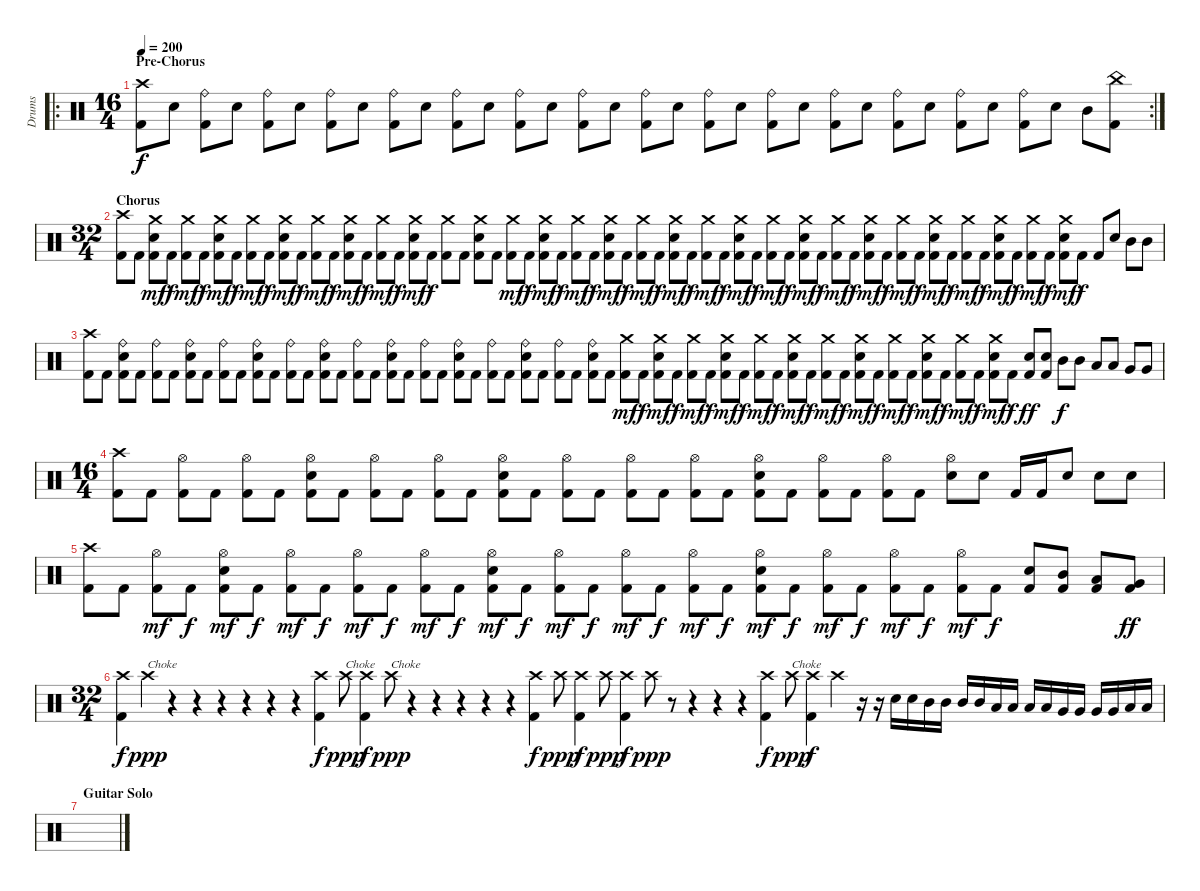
\track ("Drums" "Drums") {instrument percussion}
\staff {score}
\articulation defaults
\ro
\rc 2
\ts (16 4)
\section ("" "Pre-Chorus")
\tempo 200
\clef neutral
\ks c
("Crash high (hit)" "Kick (hit) 2").8{dy f} "Electric Snare (hit)".8 ("Ride (bell)" "Kick (hit) 2").8 "Electric Snare (hit)".8 ("Ride (bell)" "Kick (hit) 2").8 "Electric Snare (hit)".8 ("Ride (bell)" "Kick (hit) 2").8 "Electric Snare (hit)".8 ("Ride (bell)" "Kick (hit) 2").8 "Electric Snare (hit)".8 ("Ride (bell)" "Kick (hit) 2").8 "Electric Snare (hit)".8 ("Ride (bell)" "Kick (hit) 2").8 "Electric Snare (hit)".8 ("Ride (bell)" "Kick (hit) 2").8 "Electric Snare (hit)".8 ("Ride (bell)" "Kick (hit) 2").8 "Electric Snare (hit)".8 ("Ride (bell)" "Kick (hit) 2").8 "Electric Snare (hit)".8 ("Ride (bell)" "Kick (hit) 2").8 "Electric Snare (hit)".8 ("Ride (bell)" "Kick (hit) 2").8 "Electric Snare (hit)".8 ("Ride (bell)" "Kick (hit) 2").8 "Electric Snare (hit)".8 ("Ride (bell)" "Kick (hit) 2").8 "Electric Snare (hit)".8 ("Ride (bell)" "Kick (hit) 2").8 "Electric Snare (hit)".8 "Mid Tom (hit)".8 ("China (hit)" "Kick (hit) 2").8 |
\ts (32 4)
\section ("" "Chorus")
("Crash high (hit)" "Kick (hit) 2").8 "Kick (hit) 2".8 ("Crash medium (hit)" "Electric Snare (hit)" "Kick (hit) 2").8{dy mf} "Kick (hit) 2".8{dy f} ("Crash medium (hit)" "Kick (hit) 2").8{dy mf} "Kick (hit) 2".8{dy f} ("Crash medium (hit)" "Electric Snare (hit)" "Kick (hit) 2").8{dy mf} "Kick (hit) 2".8{dy f} ("Crash medium (hit)" "Kick (hit) 2").8{dy mf} "Kick (hit) 2".8{dy f} ("Crash medium (hit)" "Electric Snare (hit)" "Kick (hit) 2").8{dy mf} "Kick (hit) 2".8{dy f} ("Crash medium (hit)" "Kick (hit) 2").8{dy mf} "Kick (hit) 2".8{dy f} ("Crash medium (hit)" "Electric Snare (hit)" "Kick (hit) 2").8{dy mf} "Kick (hit) 2".8{dy f} ("Crash medium (hit)" "Kick (hit) 2").8{dy mf} "Kick (hit) 2".8{dy f} ("Crash medium (hit)" "Electric Snare (hit)" "Kick (hit) 2").8{dy mf} "Kick (hit) 2".8{dy f} ("Crash medium (hit)" "Kick (hit) 2").8 "Kick (hit) 2".8 ("Crash medium (hit)" "Electric Snare (hit)" "Kick (hit) 2").8 "Kick (hit) 2".8 ("Crash medium (hit)" "Kick (hit) 2").8{dy mf} "Kick (hit) 2".8{dy f} ("Crash medium (hit)" "Electric Snare (hit)" "Kick (hit) 2").8{dy mf} "Kick (hit) 2".8{dy f} ("Crash medium (hit)" "Kick (hit) 2").8{dy mf} "Kick (hit) 2".8{dy f} ("Crash medium (hit)" "Electric Snare (hit)" "Kick (hit) 2").8{dy mf} "Kick (hit) 2".8{dy f} ("Crash medium (hit)" "Kick (hit) 2").8{dy mf} "Kick (hit) 2".8{dy f} ("Crash medium (hit)" "Electric Snare (hit)" "Kick (hit) 2").8{dy mf} "Kick (hit) 2".8{dy f} ("Crash medium (hit)" "Kick (hit) 2").8{dy mf} "Kick (hit) 2".8{dy f} ("Crash medium (hit)" "Electric Snare (hit)" "Kick (hit) 2").8{dy mf} "Kick (hit) 2".8{dy f} ("Crash medium (hit)" "Kick (hit) 2").8{dy mf} "Kick (hit) 2".8{dy f} ("Crash medium (hit)" "Electric Snare (hit)" "Kick (hit) 2").8{dy mf} "Kick (hit) 2".8{dy f} ("Crash medium (hit)" "Kick (hit) 2").8{dy mf} "Kick (hit) 2".8{dy f} ("Crash medium (hit)" "Electric Snare (hit)" "Kick (hit) 2").8{dy mf} "Kick (hit) 2".8{dy f} ("Crash medium (hit)" "Kick (hit) 2").8{dy mf} "Kick (hit) 2".8{dy f} ("Crash medium (hit)" "Electric Snare (hit)" "Kick (hit) 2").8{dy mf} "Kick (hit) 2".8{dy f} ("Crash medium (hit)" "Kick (hit) 2").8{dy mf} "Kick (hit) 2".8{dy f} ("Crash medium (hit)" "Electric Snare (hit)" "Kick (hit) 2").8{dy mf} "Kick (hit) 2".8{dy f} ("Crash medium (hit)" "Kick (hit) 2").8{dy mf} "Kick (hit) 2".8{dy f} ("Crash medium (hit)" "Electric Snare (hit)" "Kick (hit) 2").8{dy mf} "Kick (hit) 2".8{dy f} "Kick (hit) 2".8 "Electric Snare (hit)".8 "Mid Tom (hit)".8 "Mid Tom (hit)".8 |
("Crash high (hit)" "Kick (hit) 2").8 "Kick (hit) 2".8 ("Ride (bell)" "Electric Snare (hit)" "Kick (hit) 2").8 "Kick (hit) 2".8 ("Ride (bell)" "Kick (hit) 2").8 "Kick (hit) 2".8 ("Ride (bell)" "Electric Snare (hit)" "Kick (hit) 2").8 "Kick (hit) 2".8 ("Ride (bell)" "Kick (hit) 2").8 "Kick (hit) 2".8 ("Ride (bell)" "Electric Snare (hit)" "Kick (hit) 2").8 "Kick (hit) 2".8 ("Ride (bell)" "Kick (hit) 2").8 "Kick (hit) 2".8 ("Ride (bell)" "Electric Snare (hit)" "Kick (hit) 2").8 "Kick (hit) 2".8 ("Ride (bell)" "Kick (hit) 2").8 "Kick (hit) 2".8 ("Ride (bell)" "Electric Snare (hit)" "Kick (hit) 2").8 "Kick (hit) 2".8 ("Ride (bell)" "Kick (hit) 2").8 "Kick (hit) 2".8 ("Ride (bell)" "Electric Snare (hit)" "Kick (hit) 2").8 "Kick (hit) 2".8 ("Ride (bell)" "Kick (hit) 2").8 "Kick (hit) 2".8 ("Ride (bell)" "Electric Snare (hit)" "Kick (hit) 2").8 "Kick (hit) 2".8 ("Ride (bell)" "Kick (hit) 2").8 "Kick (hit) 2".8 ("Ride (bell)" "Electric Snare (hit)" "Kick (hit) 2").8 "Kick (hit) 2".8 ("Crash medium (hit)" "Kick (hit) 2").8{dy mf} "Kick (hit) 2".8{dy f} ("Crash medium (hit)" "Electric Snare (hit)" "Kick (hit) 2").8{dy mf} "Kick (hit) 2".8{dy f} ("Crash medium (hit)" "Kick (hit) 2").8{dy mf} "Kick (hit) 2".8{dy f} ("Crash medium (hit)" "Electric Snare (hit)" "Kick (hit) 2").8{dy mf} "Kick (hit) 2".8{dy f} ("Crash medium (hit)" "Kick (hit) 2").8{dy mf} "Kick (hit) 2".8{dy f} ("Crash medium (hit)" "Electric Snare (hit)" "Kick (hit) 2").8{dy mf} "Kick (hit) 2".8{dy f} ("Crash medium (hit)" "Kick (hit) 2").8{dy mf} "Kick (hit) 2".8{dy f} ("Crash medium (hit)" "Electric Snare (hit)" "Kick (hit) 2").8{dy mf} "Kick (hit) 2".8{dy f} ("Crash medium (hit)" "Kick (hit) 2").8{dy mf} "Kick (hit) 2".8{dy f} ("Crash medium (hit)" "Electric Snare (hit)" "Kick (hit) 2").8{dy mf} "Kick (hit) 2".8{dy f} ("Crash medium (hit)" "Kick (hit) 2").8{dy mf} "Kick (hit) 2".8{dy f} ("Crash medium (hit)" "Electric Snare (hit)" "Kick (hit) 2").8{dy mf} "Kick (hit) 2".8{dy f} ("Electric Snare (hit)" "Kick (hit) 2").8{dy ff} ("Electric Snare (hit)" "Kick (hit) 2").8 "Mid Tom (hit)".8{dy f} "Mid Tom (hit)".8 "Low Tom (hit)".8 "Low Tom (hit)".8 "Very Low Tom (hit)".8 "Very Low Tom (hit)".8 |
\ts (16 4)
("Crash high (hit)" "Kick (hit) 2").8 "Kick (hit) 2".8 ("Hi-Hat (open)" "Kick (hit) 2").8 "Kick (hit) 2".8 ("Hi-Hat (open)" "Kick (hit) 2").8 "Kick (hit) 2".8 ("Hi-Hat (open)" "Electric Snare (hit)" "Kick (hit) 2").8 "Kick (hit) 2".8 ("Hi-Hat (open)" "Kick (hit) 2").8 "Kick (hit) 2".8 ("Hi-Hat (open)" "Kick (hit) 2").8 "Kick (hit) 2".8 ("Hi-Hat (open)" "Electric Snare (hit)" "Kick (hit) 2").8 "Kick (hit) 2".8 ("Hi-Hat (open)" "Kick (hit) 2").8 "Kick (hit) 2".8 ("Hi-Hat (open)" "Kick (hit) 2").8 "Kick (hit) 2".8 ("Hi-Hat (open)" "Kick (hit) 2").8 "Kick (hit) 2".8 ("Hi-Hat (open)" "Electric Snare (hit)" "Kick (hit) 2").8 "Kick (hit) 2".8 ("Hi-Hat (open)" "Kick (hit) 2").8 "Kick (hit) 2".8 ("Hi-Hat (open)" "Kick (hit) 2").8 "Kick (hit) 2".8 ("Hi-Hat (open)" "Electric Snare (hit)").8 "Electric Snare (hit)".8 "Kick (hit) 2".16 "Kick (hit) 2".16 "Electric Snare (hit)".8 "Electric Snare (hit)".8 "Electric Snare (hit)".8 |
("Crash high (hit)" "Kick (hit) 2").8 "Kick (hit) 2".8 ("Hi-Hat (open)" "Kick (hit) 2").8{dy mf} "Kick (hit) 2".8{dy f} ("Hi-Hat (open)" "Electric Snare (hit)" "Kick (hit) 2").8{dy mf} "Kick (hit) 2".8{dy f} ("Hi-Hat (open)" "Kick (hit) 2").8{dy mf} "Kick (hit) 2".8{dy f} ("Hi-Hat (open)" "Kick (hit) 2").8{dy mf} "Kick (hit) 2".8{dy f} ("Hi-Hat (open)" "Kick (hit) 2").8{dy mf} "Kick (hit) 2".8{dy f} ("Hi-Hat (open)" "Electric Snare (hit)" "Kick (hit) 2").8{dy mf} "Kick (hit) 2".8{dy f} ("Hi-Hat (open)" "Kick (hit) 2").8{dy mf} "Kick (hit) 2".8{dy f} ("Hi-Hat (open)" "Kick (hit) 2").8{dy mf} "Kick (hit) 2".8{dy f} ("Hi-Hat (open)" "Kick (hit) 2").8{dy mf} "Kick (hit) 2".8{dy f} ("Hi-Hat (open)" "Electric Snare (hit)" "Kick (hit) 2").8{dy mf} "Kick (hit) 2".8{dy f} ("Hi-Hat (open)" "Kick (hit) 2").8{dy mf} "Kick (hit) 2".8{dy f} ("Hi-Hat (open)" "Kick (hit) 2").8{dy mf} "Kick (hit) 2".8{dy f} ("Hi-Hat (open)" "Kick (hit) 2").8{dy mf} "Kick (hit) 2".8{dy f} ("Electric Snare (hit)" "Kick (hit) 2").8 ("Mid Tom (hit)" "Kick (hit) 2").8 ("Low Tom (hit)" "Kick (hit) 2").8 ("Very Low Tom (hit)" "Kick (hit) 2").8{dy ff} |
\ts (32 4)
("Crash high (hit)" "Kick (hit) 2").4{dy f} "Crash high (hit)".4{txt "Choke" dy ppp volume 0} r.4 r.4 r.4 r.4 r.4 r.4{volume 15} ("Crash high (hit)" "Kick (hit) 2").4{dy f} "Crash high (hit)".8{txt "Choke" dy ppp volume 0} ("Crash high (hit)" "Kick (hit) 2").4{dy f volume 15} "Crash high (hit)".8{txt "Choke" dy ppp volume 0} r.4 r.4 r.4 r.4 r.4{volume 15} ("Crash high (hit)" "Kick (hit) 2").4{dy f} "Crash high (hit)".8{dy ppp volume 0} ("Crash high (hit)" "Kick (hit) 2").4{dy f volume 15} "Crash high (hit)".8{dy ppp volume 0} ("Crash high (hit)" "Kick (hit) 2").4{dy f volume 15} "Crash high (hit)".8{dy ppp volume 0} r.8{volume 15} r.4 r.4 r.4 ("Crash high (hit)" "Kick (hit) 2").4{dy f} "Crash high (hit)".8{txt "Choke" dy ppp volume 0} ("Crash high (hit)" "Kick (hit) 2").4{dy f volume 15} "Crash high (hit)".4{volume 0} r.16 r.16 "Electric Snare (hit)".16{volume 15} "Electric Snare (hit)".16 "Mid Tom (hit)".16 "Mid Tom (hit)".16 "Mid Tom (hit)".16 "Mid Tom (hit)".16 "Low Tom (hit)".16 "Low Tom (hit)".16 "Low Tom (hit)".16 "Low Tom (hit)".16 "Very Low Tom (hit)".16 "Very Low Tom (hit)".16 "Very Low Tom (hit)".16 "Very Low Tom (hit)".16 "Low Floor Tom (hit)".16 "Low Floor Tom (hit)".16 |
\section ("" "Guitar Solo")
